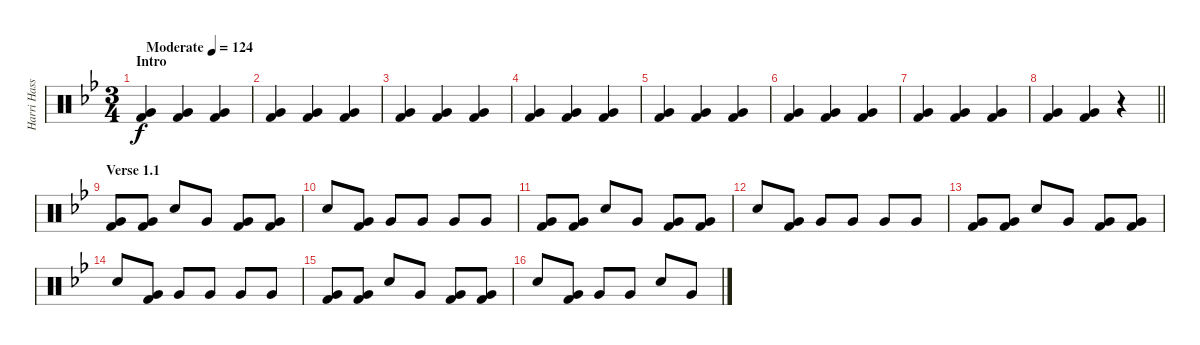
\track ("Harri Hassin (drums)" "Harri Hass") {instrument percussion}
\staff {score}
\articulation defaults
\ts (3 4)
\section ("" "Intro")
\tempo (124 "Moderate")
\clef neutral
\ks bb
("Very Low Tom (hit)" "Kick (hit) 2").4{dy f} ("Very Low Tom (hit)" "Kick (hit) 2").4 ("Very Low Tom (hit)" "Kick (hit) 2").4 |
("Very Low Tom (hit)" "Kick (hit) 2").4 ("Very Low Tom (hit)" "Kick (hit) 2").4 ("Very Low Tom (hit)" "Kick (hit) 2").4 |
("Very Low Tom (hit)" "Kick (hit) 2").4 ("Very Low Tom (hit)" "Kick (hit) 2").4 ("Very Low Tom (hit)" "Kick (hit) 2").4 |
("Very Low Tom (hit)" "Kick (hit) 2").4 ("Very Low Tom (hit)" "Kick (hit) 2").4 ("Very Low Tom (hit)" "Kick (hit) 2").4 |
("Very Low Tom (hit)" "Kick (hit) 2").4 ("Very Low Tom (hit)" "Kick (hit) 2").4 ("Very Low Tom (hit)" "Kick (hit) 2").4 |
("Very Low Tom (hit)" "Kick (hit) 2").4 ("Very Low Tom (hit)" "Kick (hit) 2").4 ("Very Low Tom (hit)" "Kick (hit) 2").4 |
("Very Low Tom (hit)" "Kick (hit) 2").4 ("Very Low Tom (hit)" "Kick (hit) 2").4 ("Very Low Tom (hit)" "Kick (hit) 2").4 |
\barLineRight lightlight
("Very Low Tom (hit)" "Kick (hit) 2").4 ("Very Low Tom (hit)" "Kick (hit) 2").4 r.4 |
\section ("" "Verse 1.1")
("Very Low Tom (hit)" "Kick (hit) 2").8 ("Very Low Tom (hit)" "Kick (hit) 2").8 "Electric Snare (hit)".8 "Very Low Tom (hit)".8 ("Very Low Tom (hit)" "Kick (hit) 2").8 ("Very Low Tom (hit)" "Kick (hit) 2").8 |
"Electric Snare (hit)".8 ("Very Low Tom (hit)" "Kick (hit) 2").8 "Very Low Tom (hit)".8 "Very Low Tom (hit)".8 "Very Low Tom (hit)".8 "Very Low Tom (hit)".8 |
("Very Low Tom (hit)" "Kick (hit) 2").8 ("Very Low Tom (hit)" "Kick (hit) 2").8 "Electric Snare (hit)".8 "Very Low Tom (hit)".8 ("Very Low Tom (hit)" "Kick (hit) 2").8 ("Very Low Tom (hit)" "Kick (hit) 2").8 |
"Electric Snare (hit)".8 ("Very Low Tom (hit)" "Kick (hit) 2").8 "Very Low Tom (hit)".8 "Very Low Tom (hit)".8 "Very Low Tom (hit)".8 "Very Low Tom (hit)".8 |
("Very Low Tom (hit)" "Kick (hit) 2").8 ("Very Low Tom (hit)" "Kick (hit) 2").8 "Electric Snare (hit)".8 "Very Low Tom (hit)".8 ("Very Low Tom (hit)" "Kick (hit) 2").8 ("Very Low Tom (hit)" "Kick (hit) 2").8 |
"Electric Snare (hit)".8 ("Very Low Tom (hit)" "Kick (hit) 2").8 "Very Low Tom (hit)".8 "Very Low Tom (hit)".8 "Very Low Tom (hit)".8 "Very Low Tom (hit)".8 |
("Very Low Tom (hit)" "Kick (hit) 2").8 ("Very Low Tom (hit)" "Kick (hit) 2").8 "Electric Snare (hit)".8 "Very Low Tom (hit)".8 ("Very Low Tom (hit)" "Kick (hit) 2").8 ("Very Low Tom (hit)" "Kick (hit) 2").8 |
"Electric Snare (hit)".8 ("Very Low Tom (hit)" "Kick (hit) 2").8 "Very Low Tom (hit)".8 "Very Low Tom (hit)".8 "Electric Snare (hit)".8 "Very Low Tom (hit)".8
